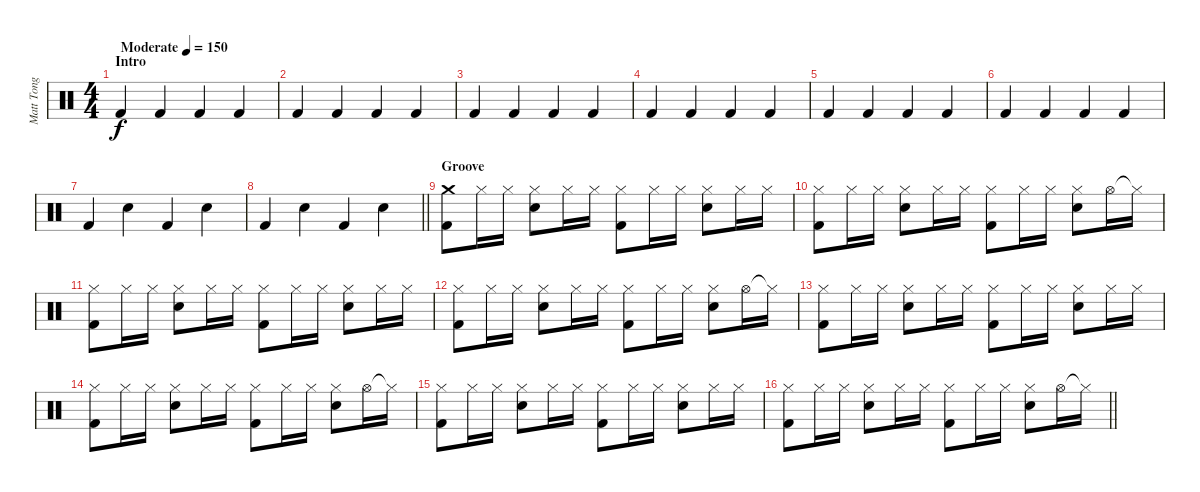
\track ("Matt Tong" "Matt Tong") {instrument percussion}
\staff {score}
\articulation defaults
\ts (4 4)
\section ("" "Intro")
\tempo (150 "Moderate")
\clef neutral
\ks c "Kick (hit) 2".4{dy f volume 14} "Kick (hit) 2".4 "Kick (hit) 2".4 "Kick (hit) 2".4
|
"Kick (hit) 2".4 "Kick (hit) 2".4 "Kick (hit) 2".4 "Kick (hit) 2".4 |
"Kick (hit) 2".4 "Kick (hit) 2".4 "Kick (hit) 2".4 "Kick (hit) 2".4 |
"Kick (hit) 2".4 "Kick (hit) 2".4 "Kick (hit) 2".4 "Kick (hit) 2".4 |
"Kick (hit) 2".4 "Kick (hit) 2".4 "Kick (hit) 2".4 "Kick (hit) 2".4 |
"Kick (hit) 2".4 "Kick (hit) 2".4 "Kick (hit) 2".4 "Kick (hit) 2".4 |
"Kick (hit) 2".4 "Electric Snare (hit)".4 "Kick (hit) 2".4 "Electric Snare (hit)".4 |
\barLineRight lightlight "Kick (hit) 2".4 "Electric Snare (hit)".4 "Kick (hit) 2".4 "Electric Snare (hit)".4
|
\section ("" "Groove")
("Crash medium (hit)" "Kick (hit) 2").8 "Hi-Hat (closed)".16 "Hi-Hat (closed)".16 ("Hi-Hat (closed)" "Electric Snare (hit)").8 "Hi-Hat (closed)".16 "Hi-Hat (closed)".16 ("Hi-Hat (closed)" "Kick (hit) 2").8 "Hi-Hat (closed)".16 "Hi-Hat (closed)".16 ("Hi-Hat (closed)" "Electric Snare (hit)").8 "Hi-Hat (closed)".16 "Hi-Hat (closed)".16 |
("Hi-Hat (closed)" "Kick (hit) 2").8 "Hi-Hat (closed)".16 "Hi-Hat (closed)".16 ("Hi-Hat (closed)" "Electric Snare (hit)").8 "Hi-Hat (closed)".16 "Hi-Hat (closed)".16 ("Hi-Hat (closed)" "Kick (hit) 2").8 "Hi-Hat (closed)".16 "Hi-Hat (closed)".16 ("Hi-Hat (closed)" "Electric Snare (hit)").8 "Hi-Hat (open)".16 "Hi-Hat (closed)"{t}.16 |
("Hi-Hat (closed)" "Kick (hit) 2").8 "Hi-Hat (closed)".16 "Hi-Hat (closed)".16 ("Hi-Hat (closed)" "Electric Snare (hit)").8 "Hi-Hat (closed)".16 "Hi-Hat (closed)".16 ("Hi-Hat (closed)" "Kick (hit) 2").8 "Hi-Hat (closed)".16 "Hi-Hat (closed)".16 ("Hi-Hat (closed)" "Electric Snare (hit)").8 "Hi-Hat (closed)".16 "Hi-Hat (closed)".16 |
("Hi-Hat (closed)" "Kick (hit) 2").8 "Hi-Hat (closed)".16 "Hi-Hat (closed)".16 ("Hi-Hat (closed)" "Electric Snare (hit)").8 "Hi-Hat (closed)".16 "Hi-Hat (closed)".16 ("Hi-Hat (closed)" "Kick (hit) 2").8 "Hi-Hat (closed)".16 "Hi-Hat (closed)".16 ("Hi-Hat (closed)" "Electric Snare (hit)").8 "Hi-Hat (open)".16 "Hi-Hat (closed)"{t}.16 |
("Hi-Hat (closed)" "Kick (hit) 2").8 "Hi-Hat (closed)".16 "Hi-Hat (closed)".16 ("Hi-Hat (closed)" "Electric Snare (hit)").8 "Hi-Hat (closed)".16 "Hi-Hat (closed)".16 ("Hi-Hat (closed)" "Kick (hit) 2").8 "Hi-Hat (closed)".16 "Hi-Hat (closed)".16 ("Hi-Hat (closed)" "Electric Snare (hit)").8 "Hi-Hat (closed)".16 "Hi-Hat (closed)".16 |
("Hi-Hat (closed)" "Kick (hit) 2").8 "Hi-Hat (closed)".16 "Hi-Hat (closed)".16 ("Hi-Hat (closed)" "Electric Snare (hit)").8 "Hi-Hat (closed)".16 "Hi-Hat (closed)".16 ("Hi-Hat (closed)" "Kick (hit) 2").8 "Hi-Hat (closed)".16 "Hi-Hat (closed)".16 ("Hi-Hat (closed)" "Electric Snare (hit)").8 "Hi-Hat (open)".16 "Hi-Hat (closed)"{t}.16 |
("Hi-Hat (closed)" "Kick (hit) 2").8 "Hi-Hat (closed)".16 "Hi-Hat (closed)".16 ("Hi-Hat (closed)" "Electric Snare (hit)").8 "Hi-Hat (closed)".16 "Hi-Hat (closed)".16 ("Hi-Hat (closed)" "Kick (hit) 2").8 "Hi-Hat (closed)".16 "Hi-Hat (closed)".16 ("Hi-Hat (closed)" "Electric Snare (hit)").8 "Hi-Hat (closed)".16 "Hi-Hat (closed)".16 |
\barLineRight lightlight
("Hi-Hat (closed)" "Kick (hit) 2").8 "Hi-Hat (closed)".16 "Hi-Hat (closed)".16 ("Hi-Hat (closed)" "Electric Snare (hit)").8 "Hi-Hat (closed)".16 "Hi-Hat (closed)".16 ("Hi-Hat (closed)" "Kick (hit) 2").8 "Hi-Hat (closed)".16 "Hi-Hat (closed)".16 ("Hi-Hat (closed)" "Electric Snare (hit)").8 "Hi-Hat (open)".16 "Hi-Hat (closed)"{t}.16
